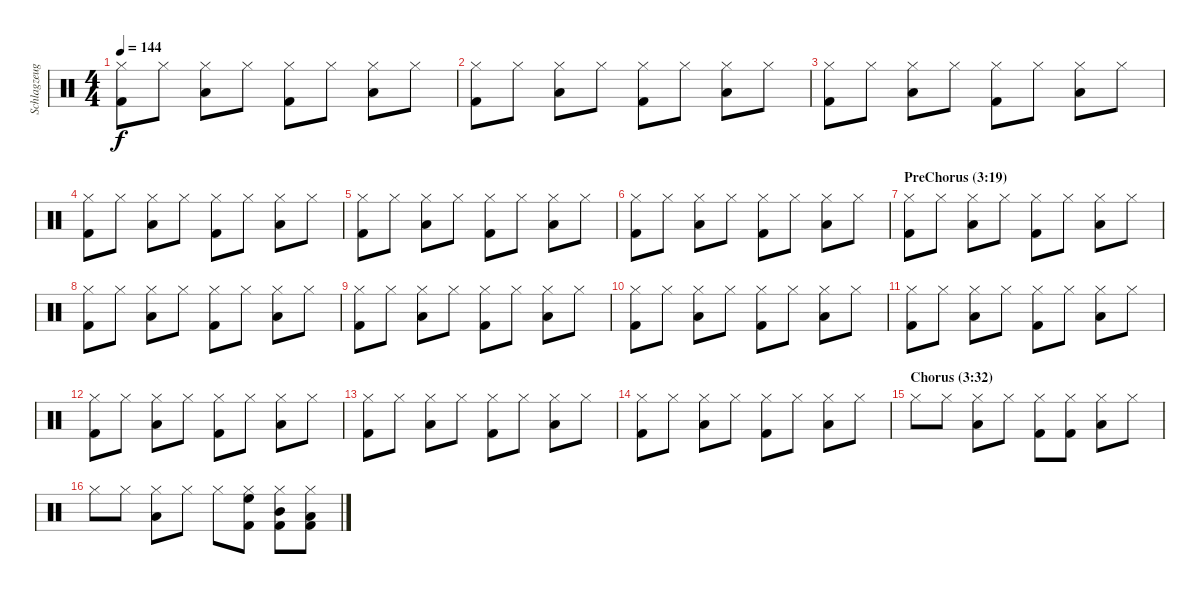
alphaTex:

\track ("Schlagzeug" "Schlagzeug") {instrument percussion}
\staff {score}
\articulation defaults
\ts (4 4)
\tempo 144
\clef neutral
\ks c
("Hi-Hat (closed)" "Kick (hit) 2").8{dy f} "Hi-Hat (closed)".8 ("Hi-Hat (closed)" "Low Tom (hit)").8 "Hi-Hat (closed)".8 ("Hi-Hat (closed)" "Kick (hit) 2").8 "Hi-Hat (closed)".8 ("Hi-Hat (closed)" "Low Tom (hit)").8 "Hi-Hat (closed)".8 |
("Hi-Hat (closed)" "Kick (hit) 2").8 "Hi-Hat (closed)".8 ("Hi-Hat (closed)" "Low Tom (hit)").8 "Hi-Hat (closed)".8 ("Hi-Hat (closed)" "Kick (hit) 2").8 "Hi-Hat (closed)".8 ("Hi-Hat (closed)" "Low Tom (hit)").8 "Hi-Hat (closed)".8 |
("Hi-Hat (closed)" "Kick (hit) 2").8 "Hi-Hat (closed)".8 ("Hi-Hat (closed)" "Low Tom (hit)").8 "Hi-Hat (closed)".8 ("Hi-Hat (closed)" "Kick (hit) 2").8 "Hi-Hat (closed)".8 ("Hi-Hat (closed)" "Low Tom (hit)").8 "Hi-Hat (closed)".8 |
("Hi-Hat (closed)" "Kick (hit) 2").8 "Hi-Hat (closed)".8 ("Hi-Hat (closed)" "Low Tom (hit)").8 "Hi-Hat (closed)".8 ("Hi-Hat (closed)" "Kick (hit) 2").8 "Hi-Hat (closed)".8 ("Hi-Hat (closed)" "Low Tom (hit)").8 "Hi-Hat (closed)".8 |
("Hi-Hat (closed)" "Kick (hit) 2").8 "Hi-Hat (closed)".8 ("Hi-Hat (closed)" "Low Tom (hit)").8 "Hi-Hat (closed)".8 ("Hi-Hat (closed)" "Kick (hit) 2").8 "Hi-Hat (closed)".8 ("Hi-Hat (closed)" "Low Tom (hit)").8 "Hi-Hat (closed)".8 |
("Hi-Hat (closed)" "Kick (hit) 2").8 "Hi-Hat (closed)".8 ("Hi-Hat (closed)" "Low Tom (hit)").8 "Hi-Hat (closed)".8 ("Hi-Hat (closed)" "Kick (hit) 2").8 "Hi-Hat (closed)".8 ("Hi-Hat (closed)" "Low Tom (hit)").8 "Hi-Hat (closed)".8 |
\section ("" "PreChorus (3:19)")
("Hi-Hat (closed)" "Kick (hit) 2").8 "Hi-Hat (closed)".8 ("Hi-Hat (closed)" "Low Tom (hit)").8 "Hi-Hat (closed)".8 ("Hi-Hat (closed)" "Kick (hit) 2").8 "Hi-Hat (closed)".8 ("Hi-Hat (closed)" "Low Tom (hit)").8 "Hi-Hat (closed)".8 |
("Hi-Hat (closed)" "Kick (hit) 2").8 "Hi-Hat (closed)".8 ("Hi-Hat (closed)" "Low Tom (hit)").8 "Hi-Hat (closed)".8 ("Hi-Hat (closed)" "Kick (hit) 2").8 "Hi-Hat (closed)".8 ("Hi-Hat (closed)" "Low Tom (hit)").8 "Hi-Hat (closed)".8 |
("Hi-Hat (closed)" "Kick (hit) 2").8 "Hi-Hat (closed)".8 ("Hi-Hat (closed)" "Low Tom (hit)").8 "Hi-Hat (closed)".8 ("Hi-Hat (closed)" "Kick (hit) 2").8 "Hi-Hat (closed)".8 ("Hi-Hat (closed)" "Low Tom (hit)").8 "Hi-Hat (closed)".8 |
("Hi-Hat (closed)" "Kick (hit) 2").8 "Hi-Hat (closed)".8 ("Hi-Hat (closed)" "Low Tom (hit)").8 "Hi-Hat (closed)".8 ("Hi-Hat (closed)" "Kick (hit) 2").8 "Hi-Hat (closed)".8 ("Hi-Hat (closed)" "Low Tom (hit)").8 "Hi-Hat (closed)".8 |
("Hi-Hat (closed)" "Kick (hit) 2").8 "Hi-Hat (closed)".8 ("Hi-Hat (closed)" "Low Tom (hit)").8 "Hi-Hat (closed)".8 ("Hi-Hat (closed)" "Kick (hit) 2").8 "Hi-Hat (closed)".8 ("Hi-Hat (closed)" "Low Tom (hit)").8 "Hi-Hat (closed)".8 |
("Hi-Hat (closed)" "Kick (hit) 2").8 "Hi-Hat (closed)".8 ("Hi-Hat (closed)" "Low Tom (hit)").8 "Hi-Hat (closed)".8 ("Hi-Hat (closed)" "Kick (hit) 2").8 "Hi-Hat (closed)".8 ("Hi-Hat (closed)" "Low Tom (hit)").8 "Hi-Hat (closed)".8 |
("Hi-Hat (closed)" "Kick (hit) 2").8 "Hi-Hat (closed)".8 ("Hi-Hat (closed)" "Low Tom (hit)").8 "Hi-Hat (closed)".8 ("Hi-Hat (closed)" "Kick (hit) 2").8 "Hi-Hat (closed)".8 ("Hi-Hat (closed)" "Low Tom (hit)").8 "Hi-Hat (closed)".8 |
("Hi-Hat (closed)" "Kick (hit) 2").8 "Hi-Hat (closed)".8 ("Hi-Hat (closed)" "Low Tom (hit)").8 "Hi-Hat (closed)".8 ("Hi-Hat (closed)" "Kick (hit) 2").8 "Hi-Hat (closed)".8 ("Hi-Hat (closed)" "Low Tom (hit)").8 "Hi-Hat (closed)".8 |
\section ("" "Chorus (3:32)")
"Hi-Hat (closed)".8 "Hi-Hat (closed)".8 ("Hi-Hat (closed)" "Low Tom (hit)").8 "Hi-Hat (closed)".8 ("Hi-Hat (closed)" "Kick (hit) 2").8 ("Hi-Hat (closed)" "Kick (hit) 2").8 ("Hi-Hat (closed)" "Low Tom (hit)").8 "Hi-Hat (closed)".8 |
"Hi-Hat (closed)".8 "Hi-Hat (closed)".8 ("Hi-Hat (closed)" "Low Tom (hit)").8 "Hi-Hat (closed)".8 "Hi-Hat (closed)".8 ("Hi-Hat (closed)" "High Floor Tom (hit)" "Kick (hit) 2").8 ("Hi-Hat (closed)" "Mid Tom (hit)" "Kick (hit) 2").8 ("Hi-Hat (closed)" "Low Tom (hit)" "Kick (hit) 2").8
